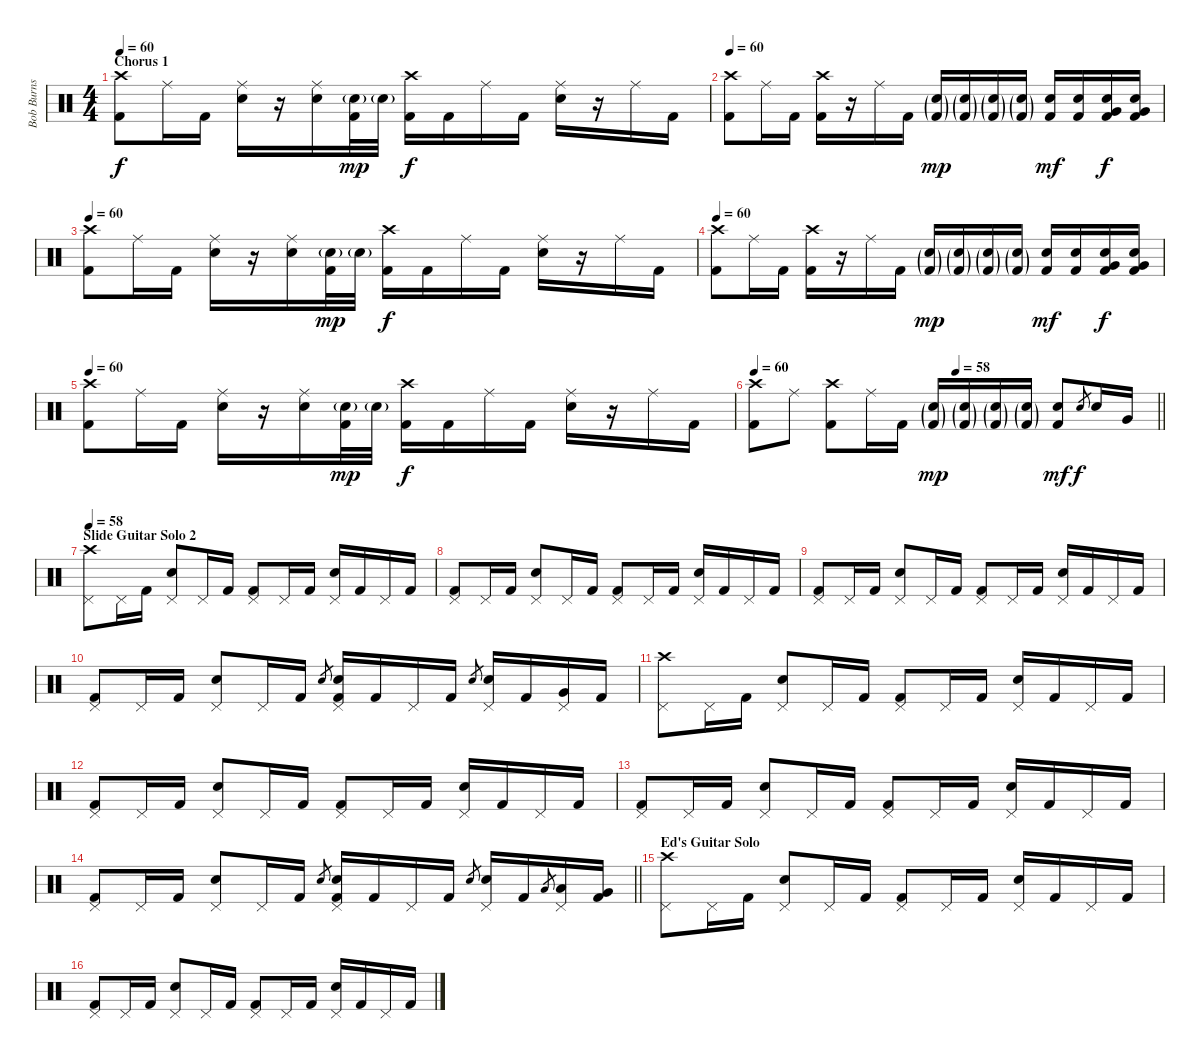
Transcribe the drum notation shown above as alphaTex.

\track ("Bob Burns (drums and percussion)" "Bob Burns ") {instrument percussion}
\staff {score}
\articulation defaults
\ts (4 4)
\section ("" "Chorus 1")
\tempo 60
\clef neutral
\ks c
("Crash high (hit)" "Kick (hit) 2").8{dy f} "Ride (middle)".16 "Kick (hit) 2".16 ("Ride (middle)" "Electric Snare (hit)").16 r.16 ("Ride (middle)" "Electric Snare (hit)").16 ("Electric Snare (hit)"{g} "Kick (hit) 2").32{dy mp} "Electric Snare (hit)"{g}.32 ("Crash high (hit)" "Kick (hit) 2").16{dy f} "Kick (hit) 2".16 "Ride (middle)".16 "Kick (hit) 2".16 ("Ride (middle)" "Electric Snare (hit)").16 r.16 "Ride (middle)".16 "Kick (hit) 2".16 |
\tempo 60
("Crash high (hit)" "Kick (hit) 2").8 "Ride (middle)".16 "Kick (hit) 2".16 ("Crash high (hit)" "Kick (hit) 2").16 r.16 "Ride (middle)".16 "Kick (hit) 2".16 ("Electric Snare (hit)"{g} "Kick (hit) 2"{g}).16{dy mp} ("Electric Snare (hit)"{g} "Kick (hit) 2"{g}).16 ("Electric Snare (hit)"{g} "Kick (hit) 2"{g}).16 ("Electric Snare (hit)"{g} "Kick (hit) 2"{g}).16 ("Electric Snare (hit)" "Kick (hit) 2").16{dy mf} ("Electric Snare (hit)" "Kick (hit) 2").16 ("Very Low Tom (hit)" "Electric Snare (hit)" "Kick (hit) 2").16{dy f} ("Very Low Tom (hit)" "Electric Snare (hit)" "Kick (hit) 2").16 |
\tempo 60
("Crash high (hit)" "Kick (hit) 2").8 "Ride (middle)".16 "Kick (hit) 2".16 ("Ride (middle)" "Electric Snare (hit)").16 r.16 ("Ride (middle)" "Electric Snare (hit)").16 ("Electric Snare (hit)"{g} "Kick (hit) 2").32{dy mp} "Electric Snare (hit)"{g}.32 ("Crash high (hit)" "Kick (hit) 2").16{dy f} "Kick (hit) 2".16 "Ride (middle)".16 "Kick (hit) 2".16 ("Ride (middle)" "Electric Snare (hit)").16 r.16 "Ride (middle)".16 "Kick (hit) 2".16 |
\tempo 60
("Crash high (hit)" "Kick (hit) 2").8 "Ride (middle)".16 "Kick (hit) 2".16 ("Crash high (hit)" "Kick (hit) 2").16 r.16 "Ride (middle)".16 "Kick (hit) 2".16 ("Electric Snare (hit)"{g} "Kick (hit) 2"{g}).16{dy mp} ("Electric Snare (hit)"{g} "Kick (hit) 2"{g}).16 ("Electric Snare (hit)"{g} "Kick (hit) 2"{g}).16 ("Electric Snare (hit)"{g} "Kick (hit) 2"{g}).16 ("Electric Snare (hit)" "Kick (hit) 2").16{dy mf} ("Electric Snare (hit)" "Kick (hit) 2").16 ("Very Low Tom (hit)" "Electric Snare (hit)" "Kick (hit) 2").16{dy f} ("Very Low Tom (hit)" "Electric Snare (hit)" "Kick (hit) 2").16 |
\tempo 60
("Crash high (hit)" "Kick (hit) 2").8 "Ride (middle)".16 "Kick (hit) 2".16 ("Ride (middle)" "Electric Snare (hit)").16 r.16 ("Ride (middle)" "Electric Snare (hit)").16 ("Electric Snare (hit)"{g} "Kick (hit) 2").32{dy mp} "Electric Snare (hit)"{g}.32 ("Crash high (hit)" "Kick (hit) 2").16{dy f} "Kick (hit) 2".16 "Ride (middle)".16 "Kick (hit) 2".16 ("Ride (middle)" "Electric Snare (hit)").16 r.16 "Ride (middle)".16 "Kick (hit) 2".16 |
\tempo 60
\tempo (58 0.5)
\barLineRight lightlight
("Crash high (hit)" "Kick (hit) 2").8 "Ride (middle)".8 ("Crash high (hit)" "Kick (hit) 2").8 "Ride (middle)".16 "Kick (hit) 2".16 ("Electric Snare (hit)"{g} "Kick (hit) 2"{g}).16{dy mp} ("Electric Snare (hit)"{g} "Kick (hit) 2"{g}).16 ("Electric Snare (hit)"{g} "Kick (hit) 2"{g}).16 ("Electric Snare (hit)"{g} "Kick (hit) 2"{g}).16 ("Electric Snare (hit)" "Kick (hit) 2").8{dy mf} "Electric Snare (hit)".8{gr dy f} "Electric Snare (hit)".16 "Very Low Tom (hit)".16 |
\section ("" "Slide Guitar Solo 2")
\tempo 58
("Crash high (hit)" "Pedal Hi-Hat (hit)").8 "Pedal Hi-Hat (hit)".16 "Kick (hit) 2".16 ("Pedal Hi-Hat (hit)" "Electric Snare (hit)").8 "Pedal Hi-Hat (hit)".16 "Kick (hit) 2".16 ("Pedal Hi-Hat (hit)" "Kick (hit) 2").8 "Pedal Hi-Hat (hit)".16 "Kick (hit) 2".16 ("Pedal Hi-Hat (hit)" "Electric Snare (hit)").16 "Kick (hit) 2".16 "Pedal Hi-Hat (hit)".16 "Kick (hit) 2".16 |
("Pedal Hi-Hat (hit)" "Kick (hit) 2").8 "Pedal Hi-Hat (hit)".16 "Kick (hit) 2".16 ("Pedal Hi-Hat (hit)" "Electric Snare (hit)").8 "Pedal Hi-Hat (hit)".16 "Kick (hit) 2".16 ("Pedal Hi-Hat (hit)" "Kick (hit) 2").8 "Pedal Hi-Hat (hit)".16 "Kick (hit) 2".16 ("Pedal Hi-Hat (hit)" "Electric Snare (hit)").16 "Kick (hit) 2".16 "Pedal Hi-Hat (hit)".16 "Kick (hit) 2".16 |
("Pedal Hi-Hat (hit)" "Kick (hit) 2").8 "Pedal Hi-Hat (hit)".16 "Kick (hit) 2".16 ("Pedal Hi-Hat (hit)" "Electric Snare (hit)").8 "Pedal Hi-Hat (hit)".16 "Kick (hit) 2".16 ("Pedal Hi-Hat (hit)" "Kick (hit) 2").8 "Pedal Hi-Hat (hit)".16 "Kick (hit) 2".16 ("Pedal Hi-Hat (hit)" "Electric Snare (hit)").16 "Kick (hit) 2".16 "Pedal Hi-Hat (hit)".16 "Kick (hit) 2".16 |
("Pedal Hi-Hat (hit)" "Kick (hit) 2").8 "Pedal Hi-Hat (hit)".16 "Kick (hit) 2".16 ("Pedal Hi-Hat (hit)" "Electric Snare (hit)").8 "Pedal Hi-Hat (hit)".16 "Kick (hit) 2".16 "Electric Snare (hit)".8{gr} ("Pedal Hi-Hat (hit)" "Electric Snare (hit)" "Kick (hit) 2").16 "Kick (hit) 2".16 "Pedal Hi-Hat (hit)".16 "Kick (hit) 2".16 "Electric Snare (hit)".8{gr} ("Pedal Hi-Hat (hit)" "Electric Snare (hit)").16 "Kick (hit) 2".16 ("Pedal Hi-Hat (hit)" "Very Low Tom (hit)").16 "Kick (hit) 2".16 |
("Crash high (hit)" "Pedal Hi-Hat (hit)").8 "Pedal Hi-Hat (hit)".16 "Kick (hit) 2".16 ("Pedal Hi-Hat (hit)" "Electric Snare (hit)").8 "Pedal Hi-Hat (hit)".16 "Kick (hit) 2".16 ("Pedal Hi-Hat (hit)" "Kick (hit) 2").8 "Pedal Hi-Hat (hit)".16 "Kick (hit) 2".16 ("Pedal Hi-Hat (hit)" "Electric Snare (hit)").16 "Kick (hit) 2".16 "Pedal Hi-Hat (hit)".16 "Kick (hit) 2".16 |
("Pedal Hi-Hat (hit)" "Kick (hit) 2").8 "Pedal Hi-Hat (hit)".16 "Kick (hit) 2".16 ("Pedal Hi-Hat (hit)" "Electric Snare (hit)").8 "Pedal Hi-Hat (hit)".16 "Kick (hit) 2".16 ("Pedal Hi-Hat (hit)" "Kick (hit) 2").8 "Pedal Hi-Hat (hit)".16 "Kick (hit) 2".16 ("Pedal Hi-Hat (hit)" "Electric Snare (hit)").16 "Kick (hit) 2".16 "Pedal Hi-Hat (hit)".16 "Kick (hit) 2".16 |
("Pedal Hi-Hat (hit)" "Kick (hit) 2").8 "Pedal Hi-Hat (hit)".16 "Kick (hit) 2".16 ("Pedal Hi-Hat (hit)" "Electric Snare (hit)").8 "Pedal Hi-Hat (hit)".16 "Kick (hit) 2".16 ("Pedal Hi-Hat (hit)" "Kick (hit) 2").8 "Pedal Hi-Hat (hit)".16 "Kick (hit) 2".16 ("Pedal Hi-Hat (hit)" "Electric Snare (hit)").16 "Kick (hit) 2".16 "Pedal Hi-Hat (hit)".16 "Kick (hit) 2".16 |
\barLineRight lightlight
("Pedal Hi-Hat (hit)" "Kick (hit) 2").8 "Pedal Hi-Hat (hit)".16 "Kick (hit) 2".16 ("Pedal Hi-Hat (hit)" "Electric Snare (hit)").8 "Pedal Hi-Hat (hit)".16 "Kick (hit) 2".16 "Electric Snare (hit)".8{gr} ("Pedal Hi-Hat (hit)" "Electric Snare (hit)" "Kick (hit) 2").16 "Kick (hit) 2".16 "Pedal Hi-Hat (hit)".16 "Kick (hit) 2".16 "Electric Snare (hit)".8{gr} ("Pedal Hi-Hat (hit)" "Electric Snare (hit)").16 "Kick (hit) 2".16 "Low Tom (hit)".8{gr} ("Pedal Hi-Hat (hit)" "Low Tom (hit)").16 ("Very Low Tom (hit)" "Kick (hit) 2").16 |
\section ("" "Ed's Guitar Solo")
("Crash high (hit)" "Pedal Hi-Hat (hit)").8 "Pedal Hi-Hat (hit)".16 "Kick (hit) 2".16 ("Pedal Hi-Hat (hit)" "Electric Snare (hit)").8 "Pedal Hi-Hat (hit)".16 "Kick (hit) 2".16 ("Pedal Hi-Hat (hit)" "Kick (hit) 2").8 "Pedal Hi-Hat (hit)".16 "Kick (hit) 2".16 ("Pedal Hi-Hat (hit)" "Electric Snare (hit)").16 "Kick (hit) 2".16 "Pedal Hi-Hat (hit)".16 "Kick (hit) 2".16 |
("Pedal Hi-Hat (hit)" "Kick (hit) 2").8 "Pedal Hi-Hat (hit)".16 "Kick (hit) 2".16 ("Pedal Hi-Hat (hit)" "Electric Snare (hit)").8 "Pedal Hi-Hat (hit)".16 "Kick (hit) 2".16 ("Pedal Hi-Hat (hit)" "Kick (hit) 2").8 "Pedal Hi-Hat (hit)".16 "Kick (hit) 2".16 ("Pedal Hi-Hat (hit)" "Electric Snare (hit)").16 "Kick (hit) 2".16 "Pedal Hi-Hat (hit)".16 "Kick (hit) 2".16
